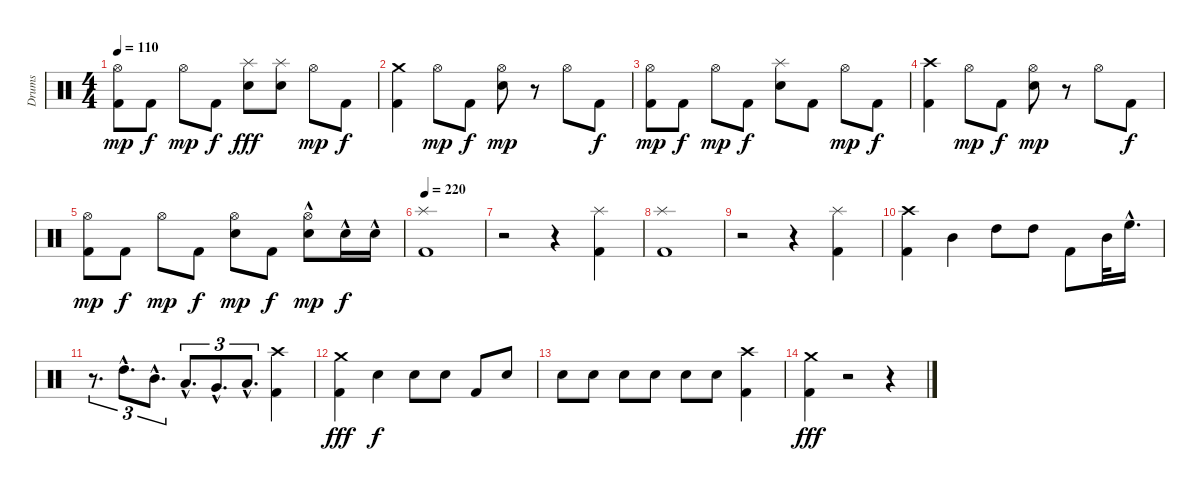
\track ("Drums" "Drums") {instrument percussion}
\staff {score}
\articulation defaults
\ts (4 4)
\tempo 110
\clef neutral
\ks c
("Hi-Hat (open)" "Kick (hit) 2").8{dy mp} "Kick (hit) 2".8{dy f} "Hi-Hat (open)".8{dy mp} "Kick (hit) 2".8{dy f} ("Splash (hit)" "Snare (hit) 2").8{dy fff} ("Splash (hit)" "Snare (hit) 2").8 "Hi-Hat (open)".8{dy mp} "Kick (hit) 2".8{dy f} |
("Crash medium (hit)" "Kick (hit) 2").4 "Hi-Hat (open)".8{dy mp} "Kick (hit) 2".8{dy f} ("Hi-Hat (open)" "Snare (hit) 2").8{dy mp} r.8 "Hi-Hat (open)".8 "Kick (hit) 2".8{dy f} |
("Hi-Hat (open)" "Kick (hit) 2").8{dy mp} "Kick (hit) 2".8{dy f} "Hi-Hat (open)".8{dy mp} "Kick (hit) 2".8{dy f} ("Splash (hit)" "Snare (hit) 2").8 "Kick (hit) 2".8 "Hi-Hat (open)".8{dy mp} "Kick (hit) 2".8{dy f} |
("Crash high (hit)" "Kick (hit) 2").4 "Hi-Hat (open)".8{dy mp} "Kick (hit) 2".8{dy f} ("Hi-Hat (open)" "Snare (hit) 2").8{dy mp} r.8 "Hi-Hat (open)".8 "Kick (hit) 2".8{dy f} |
("Hi-Hat (open)" "Kick (hit) 2").8{dy mp} "Kick (hit) 2".8{dy f} "Hi-Hat (open)".8{dy mp} "Kick (hit) 2".8{dy f} ("Hi-Hat (open)" "Snare (hit) 2").8{dy mp} "Kick (hit) 2".8{dy f} ("Hi-Hat (open)" "Snare (hit) 2"{hac}).8{dy mp} "Snare (hit) 2"{hac}.16{dy f} "Snare (hit) 2"{hac}.16 |
\tempo 220
("Splash (hit)" "Kick (hit) 2").1 |
r.2 r.4 ("Splash (hit)" "Kick (hit) 2").4 |
("Splash (hit)" "Kick (hit) 2").1 |
r.2 r.4 ("Splash (hit)" "Kick (hit) 2").4 |
("Crash high (hit)" "Kick (hit) 2").4 "Mid Tom (hit)".4 "High Tom (hit)".8 "High Tom (hit)".8 "Kick (hit) 2".8 "Mid Tom (hit)".32 "High Floor Tom (hit)"{hac}.16{d} |
r.8{d tu (3 2)} "High Tom (hit)"{hac}.8{d tu (3 2)} "Mid Tom (hit)"{hac}.8{d tu (3 2)} "Low Tom (hit)"{hac}.8{d tu (3 2)} "Very Low Tom (hit)"{hac}.8{d tu (3 2)} "Low Floor Tom (hit)"{hac}.8{d tu (3 2)} ("Crash high (hit)" "Kick (hit) 2").4 |
("Crash medium (hit)" "Kick (hit) 2").4{dy fff} "Snare (hit) 2".4{dy f} "Snare (hit) 2".8 "Snare (hit) 2".8 "Kick (hit) 2".8 "Snare (hit) 2".8 |
"Snare (hit) 2".8 "Snare (hit) 2".8 "Snare (hit) 2".8 "Snare (hit) 2".8 "Snare (hit) 2".8 "Snare (hit) 2".8 ("Crash high (hit)" "Kick (hit) 2").4 |
("Crash medium (hit)" "Kick (hit) 2").4{dy fff} r.2 r.4
